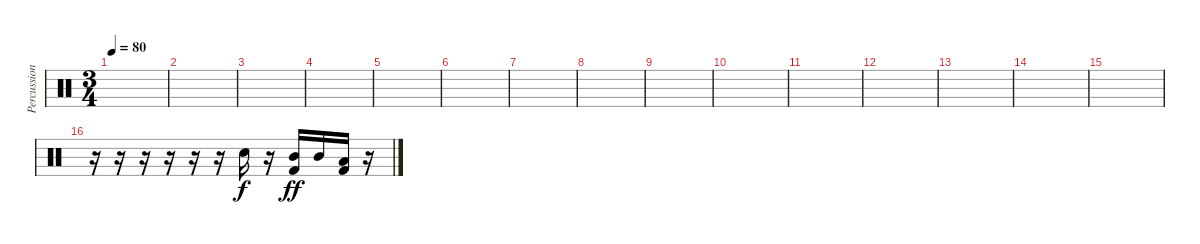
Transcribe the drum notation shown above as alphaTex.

\track ("Percussion" "Percussion") {instrument percussion}
\staff {score}
\articulation defaults
\ts (3 4)
\tempo 80
\clef neutral
\ks c
|
|
|
|
|
|
|
|
|
|
|
|
|
|
|
r.16 r.16 r.16 r.16 r.16 r.16 "Electric Snare (hit)".16 r.16 ("Mid Tom (hit)" "Kick (hit) 2").16{dy ff} "Mid Tom (hit)".16 ("Low Tom (hit)" "Kick (hit) 2").16 r.16
